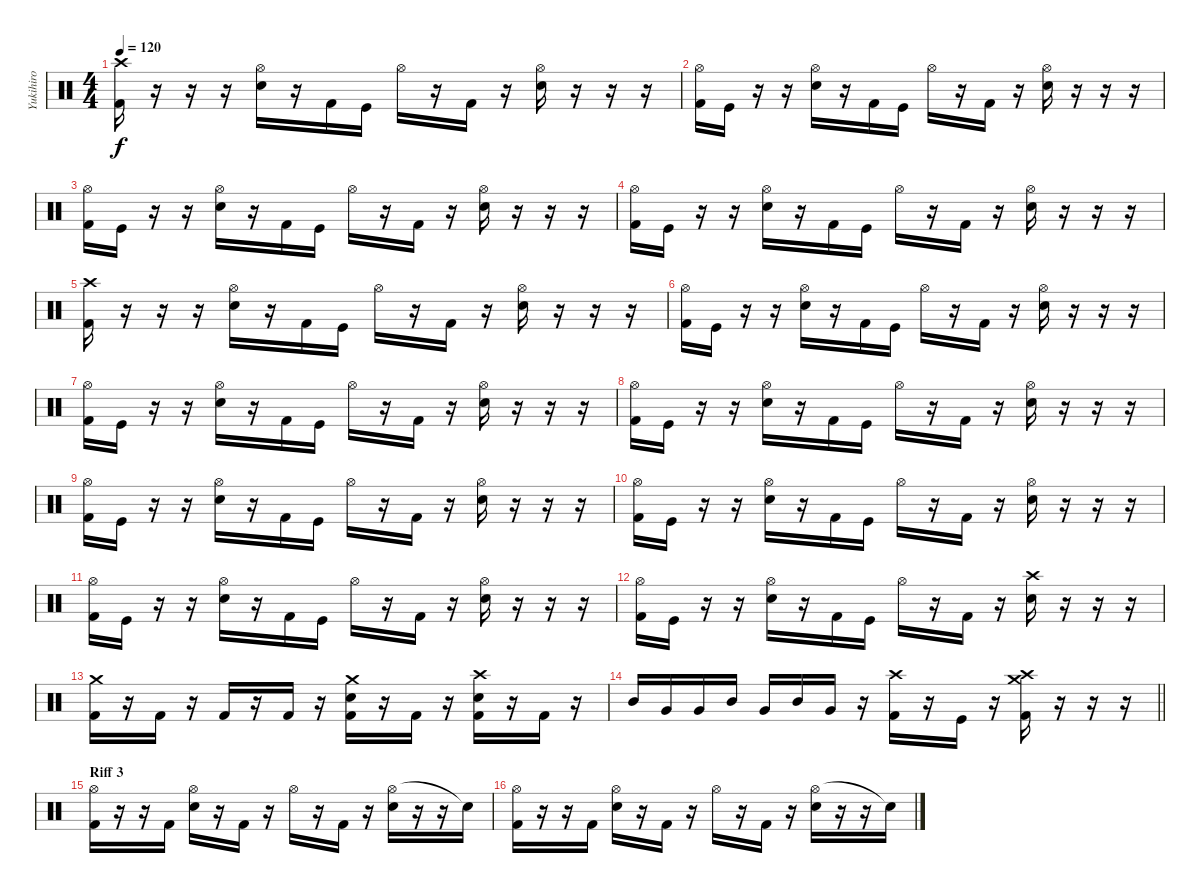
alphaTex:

\track ("Yukihiro" "Yukihiro") {instrument percussion}
\staff {score}
\articulation defaults
\ts (4 4)
\tempo 120
\clef neutral
\ks c
("Crash high (hit)" "Kick (hit) 2").16{dy f} r.16 r.16 r.16 ("Hi-Hat (open)" "Snare (hit) 2").16 r.16 "Kick (hit) 2".16 "Kick (hit)".16 "Hi-Hat (open)".16 r.16 "Kick (hit) 2".16 r.16 ("Hi-Hat (open)" "Snare (hit) 2").16 r.16 r.16 r.16 |
("Hi-Hat (open)" "Kick (hit) 2").16 "Kick (hit)".16 r.16 r.16 ("Hi-Hat (open)" "Snare (hit) 2").16 r.16 "Kick (hit) 2".16 "Kick (hit)".16 "Hi-Hat (open)".16 r.16 "Kick (hit) 2".16 r.16 ("Hi-Hat (open)" "Snare (hit) 2").16 r.16 r.16 r.16 |
("Hi-Hat (open)" "Kick (hit) 2").16 "Kick (hit)".16 r.16 r.16 ("Hi-Hat (open)" "Snare (hit) 2").16 r.16 "Kick (hit) 2".16 "Kick (hit)".16 "Hi-Hat (open)".16 r.16 "Kick (hit) 2".16 r.16 ("Hi-Hat (open)" "Snare (hit) 2").16 r.16 r.16 r.16 |
("Hi-Hat (open)" "Kick (hit) 2").16 "Kick (hit)".16 r.16 r.16 ("Hi-Hat (open)" "Snare (hit) 2").16 r.16 "Kick (hit) 2".16 "Kick (hit)".16 "Hi-Hat (open)".16 r.16 "Kick (hit) 2".16 r.16 ("Hi-Hat (open)" "Snare (hit) 2").16 r.16 r.16 r.16 |
("Crash high (hit)" "Kick (hit) 2").16 r.16 r.16 r.16 ("Hi-Hat (open)" "Snare (hit) 2").16 r.16 "Kick (hit) 2".16 "Kick (hit)".16 "Hi-Hat (open)".16 r.16 "Kick (hit) 2".16 r.16 ("Hi-Hat (open)" "Snare (hit) 2").16 r.16 r.16 r.16 |
("Hi-Hat (open)" "Kick (hit) 2").16 "Kick (hit)".16 r.16 r.16 ("Hi-Hat (open)" "Snare (hit) 2").16 r.16 "Kick (hit) 2".16 "Kick (hit)".16 "Hi-Hat (open)".16 r.16 "Kick (hit) 2".16 r.16 ("Hi-Hat (open)" "Snare (hit) 2").16 r.16 r.16 r.16 |
("Hi-Hat (open)" "Kick (hit) 2").16 "Kick (hit)".16 r.16 r.16 ("Hi-Hat (open)" "Snare (hit) 2").16 r.16 "Kick (hit) 2".16 "Kick (hit)".16 "Hi-Hat (open)".16 r.16 "Kick (hit) 2".16 r.16 ("Hi-Hat (open)" "Snare (hit) 2").16 r.16 r.16 r.16 |
("Hi-Hat (open)" "Kick (hit) 2").16 "Kick (hit)".16 r.16 r.16 ("Hi-Hat (open)" "Snare (hit) 2").16 r.16 "Kick (hit) 2".16 "Kick (hit)".16 "Hi-Hat (open)".16 r.16 "Kick (hit) 2".16 r.16 ("Hi-Hat (open)" "Snare (hit) 2").16 r.16 r.16 r.16 |
("Hi-Hat (open)" "Kick (hit) 2").16 "Kick (hit)".16 r.16 r.16 ("Hi-Hat (open)" "Snare (hit) 2").16 r.16 "Kick (hit) 2".16 "Kick (hit)".16 "Hi-Hat (open)".16 r.16 "Kick (hit) 2".16 r.16 ("Hi-Hat (open)" "Snare (hit) 2").16 r.16 r.16 r.16 |
("Hi-Hat (open)" "Kick (hit) 2").16 "Kick (hit)".16 r.16 r.16 ("Hi-Hat (open)" "Snare (hit) 2").16 r.16 "Kick (hit) 2".16 "Kick (hit)".16 "Hi-Hat (open)".16 r.16 "Kick (hit) 2".16 r.16 ("Hi-Hat (open)" "Snare (hit) 2").16 r.16 r.16 r.16 |
("Hi-Hat (open)" "Kick (hit) 2").16 "Kick (hit)".16 r.16 r.16 ("Hi-Hat (open)" "Snare (hit) 2").16 r.16 "Kick (hit) 2".16 "Kick (hit)".16 "Hi-Hat (open)".16 r.16 "Kick (hit) 2".16 r.16 ("Hi-Hat (open)" "Snare (hit) 2").16 r.16 r.16 r.16 |
("Hi-Hat (open)" "Kick (hit) 2").16 "Kick (hit)".16 r.16 r.16 ("Hi-Hat (open)" "Snare (hit) 2").16 r.16 "Kick (hit) 2".16 "Kick (hit)".16 "Hi-Hat (open)".16 r.16 "Kick (hit) 2".16 r.16 ("Crash high (hit)" "Snare (hit) 2").16 r.16 r.16 r.16 |
("Crash medium (hit)" "Kick (hit) 2").16 r.16 "Kick (hit) 2".16 r.16 "Kick (hit) 2".16 r.16 "Kick (hit) 2".16 r.16 ("Crash medium (hit)" "Snare (hit) 2" "Kick (hit) 2").16 r.16 "Kick (hit) 2".16 r.16 ("Crash high (hit)" "Snare (hit) 2" "Kick (hit) 2").16 r.16 "Kick (hit) 2".16 r.16 |
\barLineRight lightlight "Mid Tom (hit)".16 "Very Low Tom (hit)".16 "Very Low Tom (hit)".16 "Mid Tom (hit)".16 "Very Low Tom (hit)".16 "Mid Tom (hit)".16 "Very Low Tom (hit)".16
r.16 ("Crash high (hit)" "Kick (hit) 2").16 r.16 "Kick (hit)".16 r.16 ("Crash medium (hit)" "Crash high (hit)" "Kick (hit) 2").16 r.16 r.16 r.16 |
\section ("" "Riff 3")
("Hi-Hat (open)" "Kick (hit) 2").16 r.16 r.16 "Kick (hit) 2".16 ("Hi-Hat (open)" "Snare (hit) 2").16 r.16 "Kick (hit) 2".16 r.16 "Hi-Hat (open)".16 r.16 "Kick (hit) 2".16 r.16 ("Hi-Hat (open)" "Snare (hit) 2").16 r.16 r.16 "Snare (hit)"{t}.16 |
("Hi-Hat (open)" "Kick (hit) 2").16 r.16 r.16 "Kick (hit) 2".16 ("Hi-Hat (open)" "Snare (hit) 2").16 r.16 "Kick (hit) 2".16 r.16 "Hi-Hat (open)".16 r.16 "Kick (hit) 2".16 r.16 ("Hi-Hat (open)" "Snare (hit) 2").16 r.16 r.16 "Snare (hit)"{t}.16
